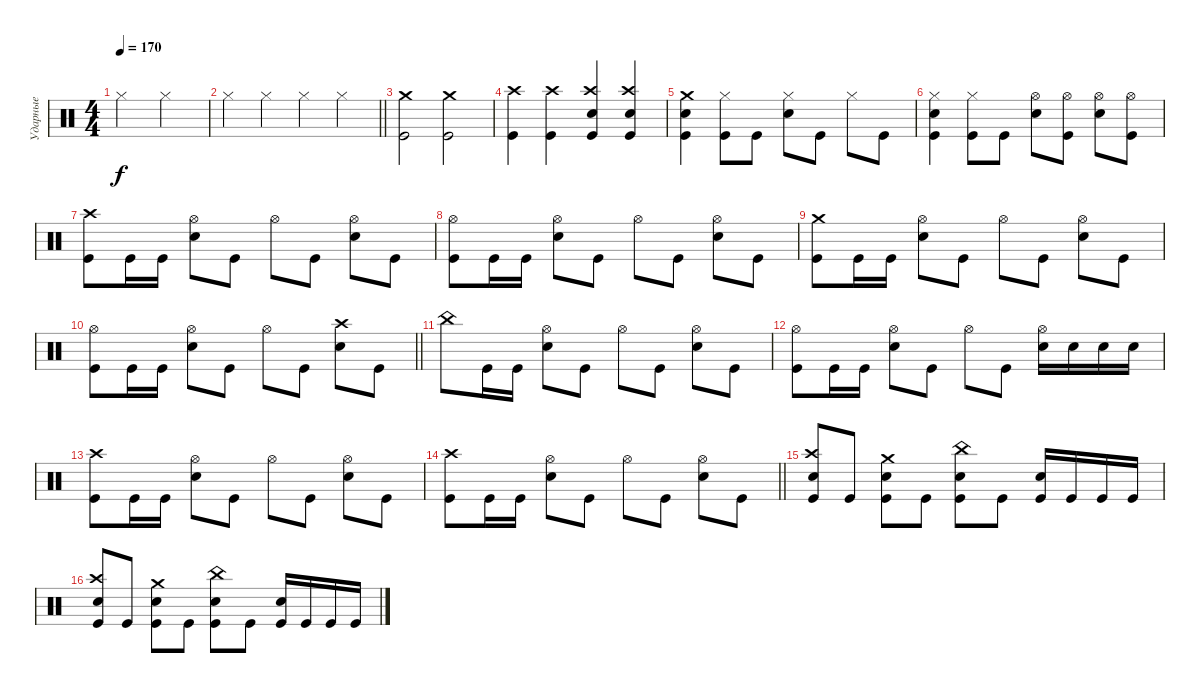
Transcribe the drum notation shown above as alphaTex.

\track ("Ударные" "Ударные") {instrument percussion}
\staff {score}
\articulation defaults
\ts (4 4)
\tempo 170
\clef neutral
\ks c "Hi-Hat (closed)".2{dy f} "Hi-Hat (closed)".2
|
\barLineRight lightlight "Hi-Hat (closed)".4 "Hi-Hat (closed)".4 "Hi-Hat (closed)".4 "Hi-Hat (closed)".4
|
\section ("" "")
("Crash medium (hit)" "Kick (hit)").2 ("Crash medium (hit)" "Kick (hit)").2 |
("Crash high (hit)" "Kick (hit)").4 ("Crash high (hit)" "Kick (hit)").4 ("Crash high (hit)" "Electric Snare (hit)" "Kick (hit)").4 ("Crash high (hit)" "Electric Snare (hit)" "Kick (hit)").4 |
("Crash medium (hit)" "Electric Snare (hit)" "Kick (hit)").4 ("Hi-Hat (closed)" "Kick (hit)").8 "Kick (hit)".8 ("Hi-Hat (closed)" "Electric Snare (hit)").8 "Kick (hit)".8 "Hi-Hat (closed)".8 "Kick (hit)".8 |
("Hi-Hat (closed)" "Electric Snare (hit)" "Kick (hit)").4 ("Hi-Hat (closed)" "Kick (hit)").8 "Kick (hit)".8 ("Hi-Hat (open)" "Electric Snare (hit)").8 ("Hi-Hat (open)" "Kick (hit)").8 ("Hi-Hat (open)" "Electric Snare (hit)").8 ("Hi-Hat (open)" "Kick (hit)").8 |
("Crash high (hit)" "Kick (hit)").8 "Kick (hit)".16 "Kick (hit)".16 ("Hi-Hat (open)" "Electric Snare (hit)").8 "Kick (hit)".8 "Hi-Hat (open)".8 "Kick (hit)".8 ("Hi-Hat (open)" "Electric Snare (hit)").8 "Kick (hit)".8 |
("Hi-Hat (open)" "Kick (hit)").8 "Kick (hit)".16 "Kick (hit)".16 ("Hi-Hat (open)" "Electric Snare (hit)").8 "Kick (hit)".8 "Hi-Hat (open)".8 "Kick (hit)".8 ("Hi-Hat (open)" "Electric Snare (hit)").8 "Kick (hit)".8 |
("Crash medium (hit)" "Kick (hit)").8 "Kick (hit)".16 "Kick (hit)".16 ("Hi-Hat (open)" "Electric Snare (hit)").8 "Kick (hit)".8 "Hi-Hat (open)".8 "Kick (hit)".8 ("Hi-Hat (open)" "Electric Snare (hit)").8 "Kick (hit)".8 |
\barLineRight lightlight
("Hi-Hat (open)" "Kick (hit)").8 "Kick (hit)".16 "Kick (hit)".16 ("Hi-Hat (open)" "Electric Snare (hit)").8 "Kick (hit)".8 "Hi-Hat (open)".8 "Kick (hit)".8 ("Crash high (hit)" "Electric Snare (hit)").8 "Kick (hit)".8 |
\section ("" "")
"China (hit)".8 "Kick (hit)".16 "Kick (hit)".16 ("Hi-Hat (open)" "Electric Snare (hit)").8 "Kick (hit)".8 "Hi-Hat (open)".8 "Kick (hit)".8 ("Hi-Hat (open)" "Electric Snare (hit)").8 "Kick (hit)".8 |
("Hi-Hat (open)" "Kick (hit)").8 "Kick (hit)".16 "Kick (hit)".16 ("Hi-Hat (open)" "Electric Snare (hit)").8 "Kick (hit)".8 "Hi-Hat (open)".8 "Kick (hit)".8 ("Hi-Hat (open)" "Electric Snare (hit)").16 "Electric Snare (hit)".16 "Electric Snare (hit)".16 "Electric Snare (hit)".16 |
("Crash high (hit)" "Kick (hit)").8 "Kick (hit)".16 "Kick (hit)".16 ("Hi-Hat (open)" "Electric Snare (hit)").8 "Kick (hit)".8 "Hi-Hat (open)".8 "Kick (hit)".8 ("Hi-Hat (open)" "Electric Snare (hit)").8 "Kick (hit)".8 |
\barLineRight lightlight
("Crash high (hit)" "Kick (hit)").8 "Kick (hit)".16 "Kick (hit)".16 ("Hi-Hat (open)" "Electric Snare (hit)").8 "Kick (hit)".8 "Hi-Hat (open)".8 "Kick (hit)".8 ("Hi-Hat (open)" "Electric Snare (hit)").8 "Kick (hit)".8 |
\section ("" "")
("Crash high (hit)" "Electric Snare (hit)" "Kick (hit)").8 "Kick (hit)".8 ("Crash medium (hit)" "Electric Snare (hit)" "Kick (hit)").8 "Kick (hit)".8 ("China (hit)" "Electric Snare (hit)" "Kick (hit)").8 "Kick (hit)".8 ("Electric Snare (hit)" "Kick (hit)").16 "Kick (hit)".16 "Kick (hit)".16 "Kick (hit)".16 |
("Crash high (hit)" "Electric Snare (hit)" "Kick (hit)").8 "Kick (hit)".8 ("Crash medium (hit)" "Electric Snare (hit)" "Kick (hit)").8 "Kick (hit)".8 ("China (hit)" "Electric Snare (hit)" "Kick (hit)").8 "Kick (hit)".8 ("Electric Snare (hit)" "Kick (hit)").16 "Kick (hit)".16 "Kick (hit)".16 "Kick (hit)".16
